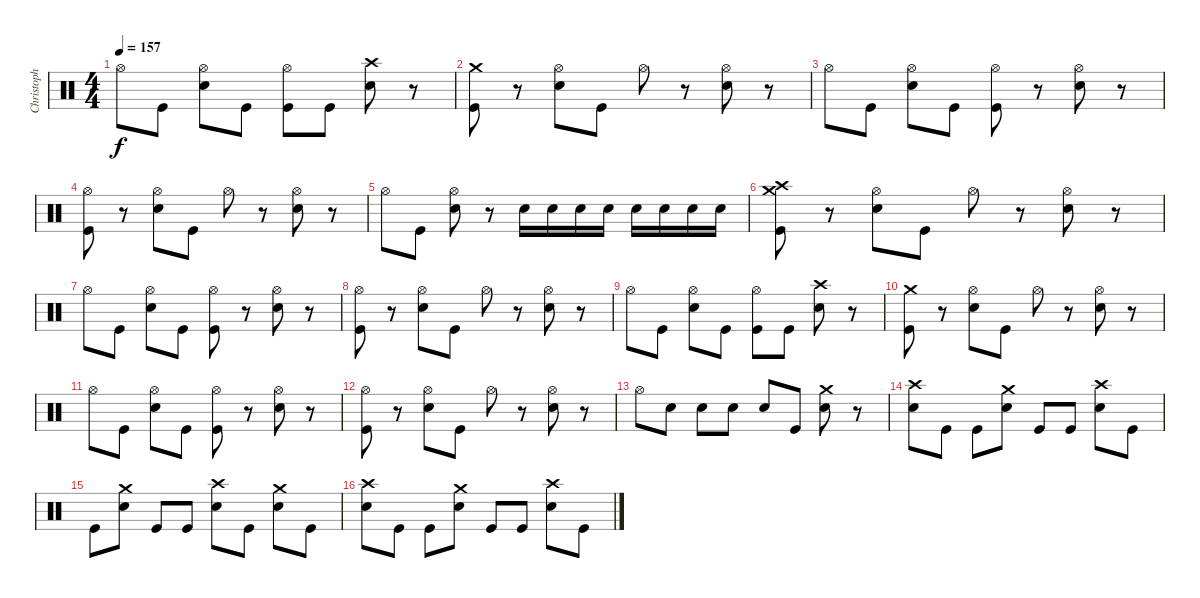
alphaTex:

\track ("Christoph" "Christoph") {instrument percussion}
\staff {score}
\articulation defaults
\ts (4 4)
\tempo 157
\clef neutral
\ks c "Hi-Hat (open)".8{dy f} "Kick (hit)".8
("Hi-Hat (open)" "Snare (hit) 2").8 "Kick (hit)".8 ("Hi-Hat (open)" "Kick (hit)").8 "Kick (hit)".8 ("Snare (hit) 2" "Crash high (hit)").8 r.8 |
("Crash medium (hit)" "Kick (hit)").8 r.8 ("Hi-Hat (open)" "Snare (hit) 2").8 "Kick (hit)".8 "Hi-Hat (open)".8 r.8 ("Hi-Hat (open)" "Snare (hit) 2").8 r.8 |
"Hi-Hat (open)".8 "Kick (hit)".8 ("Hi-Hat (open)" "Snare (hit) 2").8 "Kick (hit)".8 ("Hi-Hat (open)" "Kick (hit)").8 r.8 ("Hi-Hat (open)" "Snare (hit) 2").8 r.8 |
("Hi-Hat (open)" "Kick (hit)").8 r.8 ("Hi-Hat (open)" "Snare (hit) 2").8 "Kick (hit)".8 "Hi-Hat (open)".8 r.8 ("Hi-Hat (open)" "Snare (hit) 2").8 r.8 |
"Hi-Hat (open)".8 "Kick (hit)".8 ("Hi-Hat (open)" "Snare (hit) 2").8 r.8 "Snare (hit) 2".16 "Snare (hit) 2".16 "Snare (hit) 2".16 "Snare (hit) 2".16 "Snare (hit) 2".16 "Snare (hit) 2".16 "Snare (hit) 2".16 "Snare (hit) 2".16 |
("Crash medium (hit)" "Crash high (hit)" "Kick (hit)").8 r.8 ("Hi-Hat (open)" "Snare (hit) 2").8 "Kick (hit)".8 "Hi-Hat (open)".8 r.8 ("Hi-Hat (open)" "Snare (hit) 2").8 r.8 |
"Hi-Hat (open)".8 "Kick (hit)".8 ("Hi-Hat (open)" "Snare (hit) 2").8 "Kick (hit)".8 ("Hi-Hat (open)" "Kick (hit)").8 r.8 ("Hi-Hat (open)" "Snare (hit) 2").8 r.8 |
("Hi-Hat (open)" "Kick (hit)").8 r.8 ("Hi-Hat (open)" "Snare (hit) 2").8 "Kick (hit)".8 "Hi-Hat (open)".8 r.8 ("Hi-Hat (open)" "Snare (hit) 2").8 r.8 |
"Hi-Hat (open)".8 "Kick (hit)".8 ("Hi-Hat (open)" "Snare (hit) 2").8 "Kick (hit)".8 ("Hi-Hat (open)" "Kick (hit)").8 "Kick (hit)".8 ("Snare (hit) 2" "Crash high (hit)").8 r.8 |
("Crash medium (hit)" "Kick (hit)").8 r.8 ("Hi-Hat (open)" "Snare (hit) 2").8 "Kick (hit)".8 "Hi-Hat (open)".8 r.8 ("Hi-Hat (open)" "Snare (hit) 2").8 r.8 |
"Hi-Hat (open)".8 "Kick (hit)".8 ("Hi-Hat (open)" "Snare (hit) 2").8 "Kick (hit)".8 ("Hi-Hat (open)" "Kick (hit)").8 r.8 ("Hi-Hat (open)" "Snare (hit) 2").8 r.8 |
("Hi-Hat (open)" "Kick (hit)").8 r.8 ("Hi-Hat (open)" "Snare (hit) 2").8 "Kick (hit)".8 "Hi-Hat (open)".8 r.8 ("Hi-Hat (open)" "Snare (hit) 2").8 r.8 |
"Hi-Hat (open)".8 "Snare (hit) 2".8 "Snare (hit) 2".8 "Snare (hit) 2".8 "Snare (hit) 2".8 "Kick (hit)".8 ("Snare (hit) 2" "Crash medium (hit)").8 r.8 |
("Crash high (hit)" "Snare (hit) 2").8 "Kick (hit)".8 "Kick (hit)".8 ("Crash medium (hit)" "Snare (hit) 2").8 "Kick (hit)".8 "Kick (hit)".8 ("Crash high (hit)" "Snare (hit) 2").8 "Kick (hit)".8 |
"Kick (hit)".8 ("Crash medium (hit)" "Snare (hit) 2").8 "Kick (hit)".8 "Kick (hit)".8 ("Crash high (hit)" "Snare (hit) 2").8 "Kick (hit)".8 ("Crash medium (hit)" "Snare (hit) 2").8 "Kick (hit)".8 |
("Crash high (hit)" "Snare (hit) 2").8 "Kick (hit)".8 "Kick (hit)".8 ("Crash medium (hit)" "Snare (hit) 2").8 "Kick (hit)".8 "Kick (hit)".8 ("Crash high (hit)" "Snare (hit) 2").8 "Kick (hit)".8
